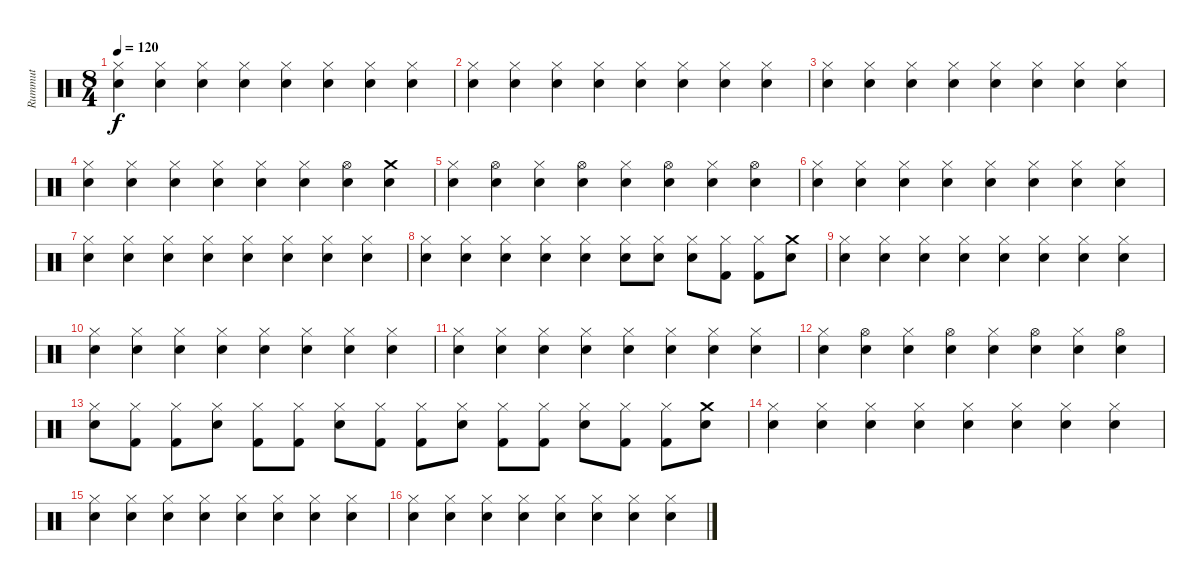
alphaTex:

\track ("Rummut" "Rummut") {instrument percussion}
\staff {score}
\articulation defaults
\ts (8 4)
\tempo 120
\clef neutral
\ks c
("Hi-Hat (closed)" "Snare (hit) 2").4{dy f} ("Hi-Hat (closed)" "Snare (hit) 2").4 ("Hi-Hat (closed)" "Snare (hit) 2").4 ("Hi-Hat (closed)" "Snare (hit) 2").4 ("Hi-Hat (closed)" "Snare (hit) 2").4 ("Hi-Hat (closed)" "Snare (hit) 2").4 ("Hi-Hat (closed)" "Snare (hit) 2").4 ("Hi-Hat (closed)" "Snare (hit) 2").4 |
("Hi-Hat (closed)" "Snare (hit) 2").4 ("Hi-Hat (closed)" "Snare (hit) 2").4 ("Hi-Hat (closed)" "Snare (hit) 2").4 ("Hi-Hat (closed)" "Snare (hit) 2").4 ("Hi-Hat (closed)" "Snare (hit) 2").4 ("Hi-Hat (closed)" "Snare (hit) 2").4 ("Hi-Hat (closed)" "Snare (hit) 2").4 ("Hi-Hat (closed)" "Snare (hit) 2").4 |
("Hi-Hat (closed)" "Snare (hit) 2").4 ("Hi-Hat (closed)" "Snare (hit) 2").4 ("Hi-Hat (closed)" "Snare (hit) 2").4 ("Hi-Hat (closed)" "Snare (hit) 2").4 ("Hi-Hat (closed)" "Snare (hit) 2").4 ("Hi-Hat (closed)" "Snare (hit) 2").4 ("Hi-Hat (closed)" "Snare (hit) 2").4 ("Hi-Hat (closed)" "Snare (hit) 2").4 |
("Hi-Hat (closed)" "Snare (hit) 2").4 ("Hi-Hat (closed)" "Snare (hit) 2").4 ("Hi-Hat (closed)" "Snare (hit) 2").4 ("Hi-Hat (closed)" "Snare (hit) 2").4 ("Hi-Hat (closed)" "Snare (hit) 2").4 ("Hi-Hat (closed)" "Snare (hit) 2").4 ("Hi-Hat (open)" "Snare (hit) 2").4 ("Crash medium (hit)" "Snare (hit) 2").4 |
("Hi-Hat (closed)" "Snare (hit) 2").4 ("Hi-Hat (open)" "Snare (hit) 2").4 ("Hi-Hat (closed)" "Snare (hit) 2").4 ("Hi-Hat (open)" "Snare (hit) 2").4 ("Hi-Hat (closed)" "Snare (hit) 2").4 ("Hi-Hat (open)" "Snare (hit) 2").4 ("Hi-Hat (closed)" "Snare (hit) 2").4 ("Hi-Hat (open)" "Snare (hit) 2").4 |
("Hi-Hat (closed)" "Snare (hit) 2").4 ("Hi-Hat (closed)" "Snare (hit) 2").4 ("Hi-Hat (closed)" "Snare (hit) 2").4 ("Hi-Hat (closed)" "Snare (hit) 2").4 ("Hi-Hat (closed)" "Snare (hit) 2").4 ("Hi-Hat (closed)" "Snare (hit) 2").4 ("Hi-Hat (closed)" "Snare (hit) 2").4 ("Hi-Hat (closed)" "Snare (hit) 2").4 |
("Hi-Hat (closed)" "Snare (hit) 2").4 ("Hi-Hat (closed)" "Snare (hit) 2").4 ("Hi-Hat (closed)" "Snare (hit) 2").4 ("Hi-Hat (closed)" "Snare (hit) 2").4 ("Hi-Hat (closed)" "Snare (hit) 2").4 ("Hi-Hat (closed)" "Snare (hit) 2").4 ("Hi-Hat (closed)" "Snare (hit) 2").4 ("Hi-Hat (closed)" "Snare (hit) 2").4 |
("Hi-Hat (closed)" "Snare (hit) 2").4 ("Hi-Hat (closed)" "Snare (hit) 2").4 ("Hi-Hat (closed)" "Snare (hit) 2").4 ("Hi-Hat (closed)" "Snare (hit) 2").4 ("Hi-Hat (closed)" "Snare (hit) 2").4 ("Hi-Hat (closed)" "Snare (hit) 2").8 ("Hi-Hat (closed)" "Snare (hit) 2").8 ("Hi-Hat (closed)" "Snare (hit) 2").8 ("Hi-Hat (closed)" "Kick (hit) 2").8 ("Hi-Hat (closed)" "Kick (hit) 2").8 ("Crash medium (hit)" "Snare (hit) 2").8 |
("Hi-Hat (closed)" "Snare (hit) 2").4 ("Hi-Hat (closed)" "Snare (hit) 2").4 ("Hi-Hat (closed)" "Snare (hit) 2").4 ("Hi-Hat (closed)" "Snare (hit) 2").4 ("Hi-Hat (closed)" "Snare (hit) 2").4 ("Hi-Hat (closed)" "Snare (hit) 2").4 ("Hi-Hat (closed)" "Snare (hit) 2").4 ("Hi-Hat (closed)" "Snare (hit) 2").4 |
("Hi-Hat (closed)" "Snare (hit) 2").4 ("Hi-Hat (closed)" "Snare (hit) 2").4 ("Hi-Hat (closed)" "Snare (hit) 2").4 ("Hi-Hat (closed)" "Snare (hit) 2").4 ("Hi-Hat (closed)" "Snare (hit) 2").4 ("Hi-Hat (closed)" "Snare (hit) 2").4 ("Hi-Hat (closed)" "Snare (hit) 2").4 ("Hi-Hat (closed)" "Snare (hit) 2").4 |
("Hi-Hat (closed)" "Snare (hit) 2").4 ("Hi-Hat (closed)" "Snare (hit) 2").4 ("Hi-Hat (closed)" "Snare (hit) 2").4 ("Hi-Hat (closed)" "Snare (hit) 2").4 ("Hi-Hat (closed)" "Snare (hit) 2").4 ("Hi-Hat (closed)" "Snare (hit) 2").4 ("Hi-Hat (closed)" "Snare (hit) 2").4 ("Hi-Hat (closed)" "Snare (hit) 2").4 |
("Hi-Hat (closed)" "Snare (hit) 2").4 ("Hi-Hat (open)" "Snare (hit) 2").4 ("Hi-Hat (closed)" "Snare (hit) 2").4 ("Hi-Hat (open)" "Snare (hit) 2").4 ("Hi-Hat (closed)" "Snare (hit) 2").4 ("Hi-Hat (open)" "Snare (hit) 2").4 ("Hi-Hat (closed)" "Snare (hit) 2").4 ("Hi-Hat (open)" "Snare (hit) 2").4 |
("Hi-Hat (closed)" "Snare (hit) 2").8 ("Hi-Hat (closed)" "Kick (hit) 2").8 ("Hi-Hat (closed)" "Kick (hit) 2").8 ("Hi-Hat (closed)" "Snare (hit) 2").8 ("Hi-Hat (closed)" "Kick (hit) 2").8 ("Hi-Hat (closed)" "Kick (hit) 2").8 ("Hi-Hat (closed)" "Snare (hit) 2").8 ("Hi-Hat (closed)" "Kick (hit) 2").8 ("Hi-Hat (closed)" "Kick (hit) 2").8 ("Hi-Hat (closed)" "Snare (hit) 2").8 ("Hi-Hat (closed)" "Kick (hit) 2").8 ("Hi-Hat (closed)" "Kick (hit) 2").8 ("Hi-Hat (closed)" "Snare (hit) 2").8 ("Hi-Hat (closed)" "Kick (hit) 2").8 ("Hi-Hat (closed)" "Kick (hit) 2").8 ("Crash medium (hit)" "Snare (hit) 2").8 |
("Hi-Hat (closed)" "Snare (hit) 2").4 ("Hi-Hat (closed)" "Snare (hit) 2").4 ("Hi-Hat (closed)" "Snare (hit) 2").4 ("Hi-Hat (closed)" "Snare (hit) 2").4 ("Hi-Hat (closed)" "Snare (hit) 2").4 ("Hi-Hat (closed)" "Snare (hit) 2").4 ("Hi-Hat (closed)" "Snare (hit) 2").4 ("Hi-Hat (closed)" "Snare (hit) 2").4 |
("Hi-Hat (closed)" "Snare (hit) 2").4 ("Hi-Hat (closed)" "Snare (hit) 2").4 ("Hi-Hat (closed)" "Snare (hit) 2").4 ("Hi-Hat (closed)" "Snare (hit) 2").4 ("Hi-Hat (closed)" "Snare (hit) 2").4 ("Hi-Hat (closed)" "Snare (hit) 2").4 ("Hi-Hat (closed)" "Snare (hit) 2").4 ("Hi-Hat (closed)" "Snare (hit) 2").4 |
("Hi-Hat (closed)" "Snare (hit) 2").4 ("Hi-Hat (closed)" "Snare (hit) 2").4 ("Hi-Hat (closed)" "Snare (hit) 2").4 ("Hi-Hat (closed)" "Snare (hit) 2").4 ("Hi-Hat (closed)" "Snare (hit) 2").4 ("Hi-Hat (closed)" "Snare (hit) 2").4 ("Hi-Hat (closed)" "Snare (hit) 2").4 ("Hi-Hat (closed)" "Snare (hit) 2").4
